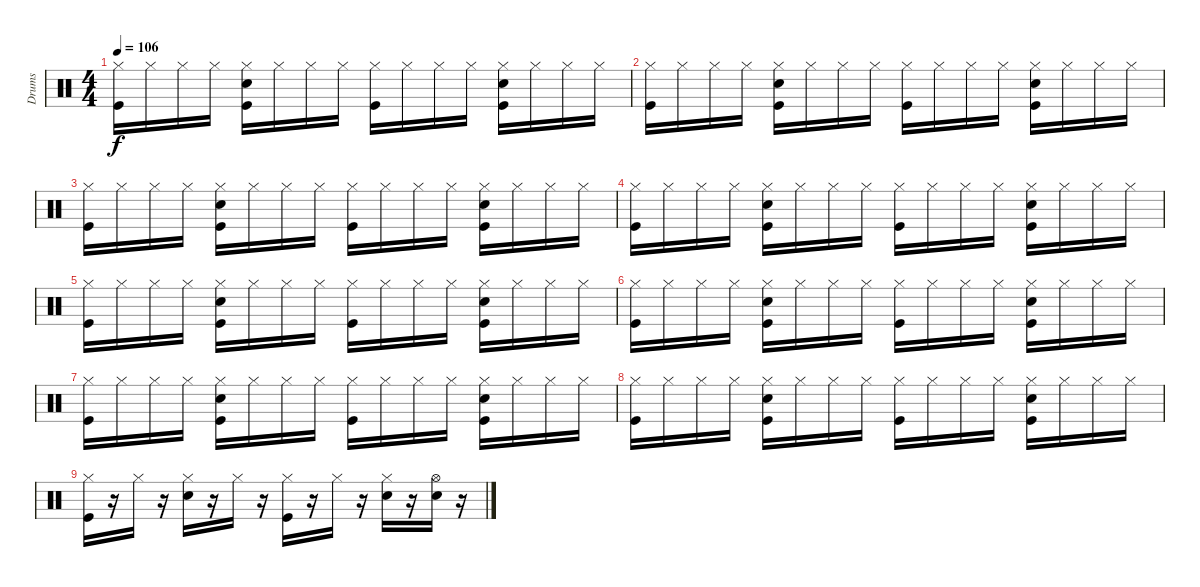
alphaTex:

\track ("Drums" "Drums") {instrument percussion}
\staff {score}
\articulation defaults
\ts (4 4)
\tempo 106
\clef neutral
\ks c
("Hi-Hat (closed)" "Kick (hit)").16{dy f} "Hi-Hat (closed)".16 "Hi-Hat (closed)".16 "Hi-Hat (closed)".16 ("Hi-Hat (closed)" "Snare (hit) 2" "Kick (hit)").16 "Hi-Hat (closed)".16 "Hi-Hat (closed)".16 "Hi-Hat (closed)".16 ("Hi-Hat (closed)" "Kick (hit)").16 "Hi-Hat (closed)".16 "Hi-Hat (closed)".16 "Hi-Hat (closed)".16 ("Hi-Hat (closed)" "Snare (hit) 2" "Kick (hit)").16 "Hi-Hat (closed)".16 "Hi-Hat (closed)".16 "Hi-Hat (closed)".16 |
("Hi-Hat (closed)" "Kick (hit)").16 "Hi-Hat (closed)".16 "Hi-Hat (closed)".16 "Hi-Hat (closed)".16 ("Hi-Hat (closed)" "Snare (hit) 2" "Kick (hit)").16 "Hi-Hat (closed)".16 "Hi-Hat (closed)".16 "Hi-Hat (closed)".16 ("Hi-Hat (closed)" "Kick (hit)").16 "Hi-Hat (closed)".16 "Hi-Hat (closed)".16 "Hi-Hat (closed)".16 ("Hi-Hat (closed)" "Snare (hit) 2" "Kick (hit)").16 "Hi-Hat (closed)".16 "Hi-Hat (closed)".16 "Hi-Hat (closed)".16 |
("Kick (hit)" "Hi-Hat (closed)").16 "Hi-Hat (closed)".16 "Hi-Hat (closed)".16 "Hi-Hat (closed)".16 ("Kick (hit)" "Snare (hit) 2" "Hi-Hat (closed)").16 "Hi-Hat (closed)".16 "Hi-Hat (closed)".16 "Hi-Hat (closed)".16 ("Kick (hit)" "Hi-Hat (closed)").16 "Hi-Hat (closed)".16 "Hi-Hat (closed)".16 "Hi-Hat (closed)".16 ("Kick (hit)" "Snare (hit) 2" "Hi-Hat (closed)").16 "Hi-Hat (closed)".16 "Hi-Hat (closed)".16 "Hi-Hat (closed)".16 |
("Kick (hit)" "Hi-Hat (closed)").16 "Hi-Hat (closed)".16 "Hi-Hat (closed)".16 "Hi-Hat (closed)".16 ("Kick (hit)" "Snare (hit) 2" "Hi-Hat (closed)").16 "Hi-Hat (closed)".16 "Hi-Hat (closed)".16 "Hi-Hat (closed)".16 ("Kick (hit)" "Hi-Hat (closed)").16 "Hi-Hat (closed)".16 "Hi-Hat (closed)".16 "Hi-Hat (closed)".16 ("Kick (hit)" "Snare (hit) 2" "Hi-Hat (closed)").16 "Hi-Hat (closed)".16 "Hi-Hat (closed)".16 "Hi-Hat (closed)".16 |
("Kick (hit)" "Hi-Hat (closed)").16 "Hi-Hat (closed)".16 "Hi-Hat (closed)".16 "Hi-Hat (closed)".16 ("Kick (hit)" "Snare (hit) 2" "Hi-Hat (closed)").16 "Hi-Hat (closed)".16 "Hi-Hat (closed)".16 "Hi-Hat (closed)".16 ("Kick (hit)" "Hi-Hat (closed)").16 "Hi-Hat (closed)".16 "Hi-Hat (closed)".16 "Hi-Hat (closed)".16 ("Kick (hit)" "Snare (hit) 2" "Hi-Hat (closed)").16 "Hi-Hat (closed)".16 "Hi-Hat (closed)".16 "Hi-Hat (closed)".16 |
("Hi-Hat (closed)" "Kick (hit)").16 "Hi-Hat (closed)".16 "Hi-Hat (closed)".16 "Hi-Hat (closed)".16 ("Hi-Hat (closed)" "Snare (hit) 2" "Kick (hit)").16 "Hi-Hat (closed)".16 "Hi-Hat (closed)".16 "Hi-Hat (closed)".16 ("Hi-Hat (closed)" "Kick (hit)").16 "Hi-Hat (closed)".16 "Hi-Hat (closed)".16 "Hi-Hat (closed)".16 ("Hi-Hat (closed)" "Snare (hit) 2" "Kick (hit)").16 "Hi-Hat (closed)".16 "Hi-Hat (closed)".16 "Hi-Hat (closed)".16 |
("Hi-Hat (closed)" "Kick (hit)").16 "Hi-Hat (closed)".16 "Hi-Hat (closed)".16 "Hi-Hat (closed)".16 ("Hi-Hat (closed)" "Snare (hit) 2" "Kick (hit)").16 "Hi-Hat (closed)".16 "Hi-Hat (closed)".16 "Hi-Hat (closed)".16 ("Hi-Hat (closed)" "Kick (hit)").16 "Hi-Hat (closed)".16 "Hi-Hat (closed)".16 "Hi-Hat (closed)".16 ("Hi-Hat (closed)" "Snare (hit) 2" "Kick (hit)").16 "Hi-Hat (closed)".16 "Hi-Hat (closed)".16 "Hi-Hat (closed)".16 |
("Kick (hit)" "Hi-Hat (closed)").16 "Hi-Hat (closed)".16 "Hi-Hat (closed)".16 "Hi-Hat (closed)".16 ("Kick (hit)" "Snare (hit) 2" "Hi-Hat (closed)").16 "Hi-Hat (closed)".16 "Hi-Hat (closed)".16 "Hi-Hat (closed)".16 ("Kick (hit)" "Hi-Hat (closed)").16 "Hi-Hat (closed)".16 "Hi-Hat (closed)".16 "Hi-Hat (closed)".16 ("Kick (hit)" "Snare (hit) 2" "Hi-Hat (closed)").16 "Hi-Hat (closed)".16 "Hi-Hat (closed)".16 "Hi-Hat (closed)".16 |
("Kick (hit)" "Hi-Hat (closed)").16 r.16 "Hi-Hat (closed)".16 r.16 ("Snare (hit) 2" "Hi-Hat (closed)").16 r.16 "Hi-Hat (closed)".16 r.16 ("Hi-Hat (closed)" "Kick (hit)").16 r.16 "Hi-Hat (closed)".16 r.16 ("Hi-Hat (closed)" "Snare (hit) 2").16 r.16 ("Snare (hit) 2" "Hi-Hat (open)").16 r.16
